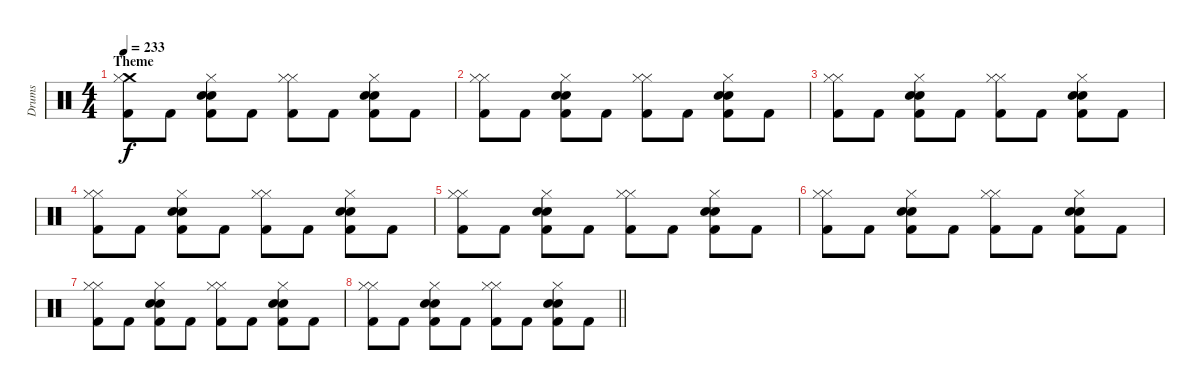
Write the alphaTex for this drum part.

\track ("Drums" "Drums") {instrument percussion}
\staff {score}
\articulation defaults
\ts (4 4)
\section ("" "Theme")
\tempo 233
\clef neutral
\ks c
("Crash medium (hit)" "Hi-Hat (closed)" "Kick (hit) 2").8{dy f} "Kick (hit) 2".8 ("Hi-Hat (closed)" "Snare (hit) 2" "Electric Snare (hit)" "Kick (hit) 2").8 "Kick (hit) 2".8 ("Hi-Hat (closed)" "Hi-Hat (closed)" "Kick (hit) 2").8 "Kick (hit) 2".8 ("Hi-Hat (closed)" "Snare (hit) 2" "Electric Snare (hit)" "Kick (hit) 2").8 "Kick (hit) 2".8 |
("Hi-Hat (closed)" "Hi-Hat (closed)" "Kick (hit) 2").8 "Kick (hit) 2".8 ("Hi-Hat (closed)" "Snare (hit) 2" "Electric Snare (hit)" "Kick (hit) 2").8 "Kick (hit) 2".8 ("Hi-Hat (closed)" "Hi-Hat (closed)" "Kick (hit) 2").8 "Kick (hit) 2".8 ("Hi-Hat (closed)" "Snare (hit) 2" "Electric Snare (hit)" "Kick (hit) 2").8 "Kick (hit) 2".8 |
("Hi-Hat (closed)" "Hi-Hat (closed)" "Kick (hit) 2").8 "Kick (hit) 2".8 ("Hi-Hat (closed)" "Snare (hit) 2" "Electric Snare (hit)" "Kick (hit) 2").8 "Kick (hit) 2".8 ("Hi-Hat (closed)" "Hi-Hat (closed)" "Kick (hit) 2").8 "Kick (hit) 2".8 ("Hi-Hat (closed)" "Snare (hit) 2" "Electric Snare (hit)" "Kick (hit) 2").8 "Kick (hit) 2".8 |
("Hi-Hat (closed)" "Hi-Hat (closed)" "Kick (hit) 2").8 "Kick (hit) 2".8 ("Hi-Hat (closed)" "Snare (hit) 2" "Electric Snare (hit)" "Kick (hit) 2").8 "Kick (hit) 2".8 ("Hi-Hat (closed)" "Hi-Hat (closed)" "Kick (hit) 2").8 "Kick (hit) 2".8 ("Hi-Hat (closed)" "Snare (hit) 2" "Electric Snare (hit)" "Kick (hit) 2").8 "Kick (hit) 2".8 |
("Hi-Hat (closed)" "Hi-Hat (closed)" "Kick (hit) 2").8 "Kick (hit) 2".8 ("Hi-Hat (closed)" "Snare (hit) 2" "Electric Snare (hit)" "Kick (hit) 2").8 "Kick (hit) 2".8 ("Hi-Hat (closed)" "Hi-Hat (closed)" "Kick (hit) 2").8 "Kick (hit) 2".8 ("Hi-Hat (closed)" "Snare (hit) 2" "Electric Snare (hit)" "Kick (hit) 2").8 "Kick (hit) 2".8 |
("Hi-Hat (closed)" "Hi-Hat (closed)" "Kick (hit) 2").8 "Kick (hit) 2".8 ("Hi-Hat (closed)" "Snare (hit) 2" "Electric Snare (hit)" "Kick (hit) 2").8 "Kick (hit) 2".8 ("Hi-Hat (closed)" "Hi-Hat (closed)" "Kick (hit) 2").8 "Kick (hit) 2".8 ("Hi-Hat (closed)" "Snare (hit) 2" "Electric Snare (hit)" "Kick (hit) 2").8 "Kick (hit) 2".8 |
("Hi-Hat (closed)" "Hi-Hat (closed)" "Kick (hit) 2").8 "Kick (hit) 2".8 ("Hi-Hat (closed)" "Snare (hit) 2" "Electric Snare (hit)" "Kick (hit) 2").8 "Kick (hit) 2".8 ("Hi-Hat (closed)" "Hi-Hat (closed)" "Kick (hit) 2").8 "Kick (hit) 2".8 ("Hi-Hat (closed)" "Snare (hit) 2" "Electric Snare (hit)" "Kick (hit) 2").8 "Kick (hit) 2".8 |
\barLineRight lightlight
("Hi-Hat (closed)" "Hi-Hat (closed)" "Kick (hit) 2").8 "Kick (hit) 2".8 ("Hi-Hat (closed)" "Snare (hit) 2" "Electric Snare (hit)" "Kick (hit) 2").8 "Kick (hit) 2".8 ("Hi-Hat (closed)" "Hi-Hat (closed)" "Kick (hit) 2").8 "Kick (hit) 2".8 ("Hi-Hat (closed)" "Snare (hit) 2" "Electric Snare (hit)" "Kick (hit) 2").8 "Kick (hit) 2".8
